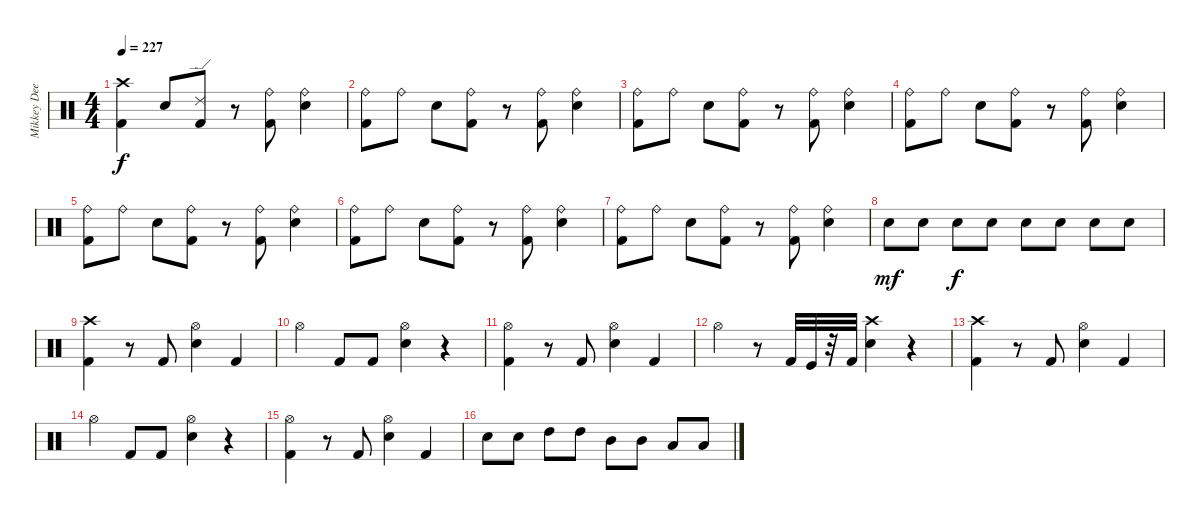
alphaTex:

\track ("Mikkey Dee" "Mikkey Dee") {instrument percussion}
\staff {score}
\articulation defaults
\ts (4 4)
\tempo 227
\clef neutral
\ks c
("Crash high (hit)" "Kick (hit) 2").4{dy f} "Electric Snare (hit)".8 ("Ride (edge) 2" "Kick (hit) 2").8 r.8 ("Ride (bell)" "Kick (hit) 2").8 ("Ride (bell)" "Electric Snare (hit)").4 |
("Ride (bell)" "Kick (hit) 2").8 "Ride (bell)".8 "Electric Snare (hit)".8 ("Kick (hit) 2" "Ride (bell)").8 r.8 ("Kick (hit) 2" "Ride (bell)").8 ("Electric Snare (hit)" "Ride (bell)").4 |
("Ride (bell)" "Kick (hit) 2").8 "Ride (bell)".8 "Electric Snare (hit)".8 ("Ride (bell)" "Kick (hit) 2").8 r.8 ("Ride (bell)" "Kick (hit) 2").8 ("Ride (bell)" "Electric Snare (hit)").4 |
("Kick (hit) 2" "Ride (bell)").8 "Ride (bell)".8 "Electric Snare (hit)".8 ("Kick (hit) 2" "Ride (bell)").8 r.8 ("Ride (bell)" "Kick (hit) 2").8 ("Ride (bell)" "Electric Snare (hit)").4 |
("Ride (bell)" "Kick (hit) 2").8 "Ride (bell)".8 "Electric Snare (hit)".8 ("Ride (bell)" "Kick (hit) 2").8 r.8 ("Ride (bell)" "Kick (hit) 2").8 ("Ride (bell)" "Electric Snare (hit)").4 |
("Ride (bell)" "Kick (hit) 2").8 "Ride (bell)".8 "Electric Snare (hit)".8 ("Ride (bell)" "Kick (hit) 2").8 r.8 ("Ride (bell)" "Kick (hit) 2").8 ("Ride (bell)" "Electric Snare (hit)").4 |
("Ride (bell)" "Kick (hit) 2").8 "Ride (bell)".8 "Electric Snare (hit)".8 ("Kick (hit) 2" "Ride (bell)").8 r.8 ("Ride (bell)" "Kick (hit) 2").8 ("Electric Snare (hit)" "Ride (bell)").4 |
"Electric Snare (hit)".8{dy mf} "Electric Snare (hit)".8 "Electric Snare (hit)".8{dy f} "Electric Snare (hit)".8 "Electric Snare (hit)".8 "Electric Snare (hit)".8 "Electric Snare (hit)".8 "Electric Snare (hit)".8 |
("Kick (hit) 2" "Crash high (hit)").4 r.8 "Kick (hit) 2".8 ("Hi-Hat (open)" "Electric Snare (hit)").4 "Kick (hit) 2".4 |
"Hi-Hat (open)".4 "Kick (hit) 2".8 "Kick (hit) 2".8 ("Hi-Hat (open)" "Electric Snare (hit)").4 r.4 |
("Hi-Hat (open)" "Kick (hit) 2").4 r.8 "Kick (hit) 2".8 ("Electric Snare (hit)" "Hi-Hat (open)").4 "Kick (hit) 2".4 |
"Hi-Hat (open)".4 r.8 "Kick (hit) 2".32 "Kick (hit)".32 r.32 "Kick (hit) 2".32 ("Electric Snare (hit)" "Crash high (hit)").4 r.4 |
("Crash high (hit)" "Kick (hit) 2").4 r.8 "Kick (hit) 2".8 ("Hi-Hat (open)" "Electric Snare (hit)").4 "Kick (hit) 2".4 |
"Hi-Hat (open)".4 "Kick (hit) 2".8 "Kick (hit) 2".8 ("Hi-Hat (open)" "Electric Snare (hit)").4 r.4 |
("Kick (hit) 2" "Hi-Hat (open)").4 r.8 "Kick (hit) 2".8 ("Hi-Hat (open)" "Electric Snare (hit)").4 "Kick (hit) 2".4 |
"Electric Snare (hit)".8 "Electric Snare (hit)".8 "High Tom (hit)".8 "High Tom (hit)".8 "Mid Tom (hit)".8 "Mid Tom (hit)".8 "Low Tom (hit)".8 "Low Tom (hit)".8
